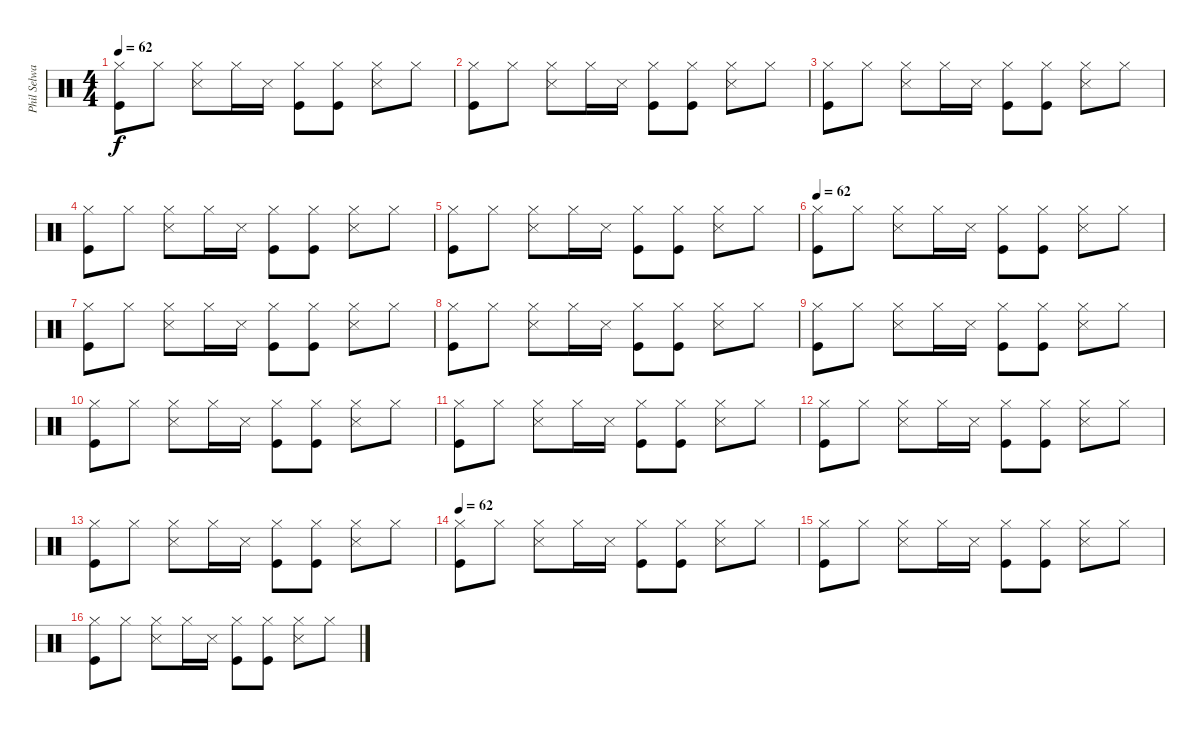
\track ("Phil Selway" "Phil Selwa") {instrument percussion}
\staff {score}
\articulation defaults
\ts (4 4)
\tempo 62
\clef neutral
\ks c
("Hi-Hat (closed)" "Kick (hit)").8{dy f} "Hi-Hat (closed)".8 ("Hi-Hat (closed)" "Snare (side stick) 3").8 "Hi-Hat (closed)".16 "Snare (side stick) 3".16 ("Hi-Hat (closed)" "Kick (hit)").8 ("Hi-Hat (closed)" "Kick (hit)").8 ("Hi-Hat (closed)" "Snare (side stick) 3").8 "Hi-Hat (closed)".8 |
("Hi-Hat (closed)" "Kick (hit)").8 "Hi-Hat (closed)".8 ("Hi-Hat (closed)" "Snare (side stick) 3").8 "Hi-Hat (closed)".16 "Snare (side stick) 3".16 ("Hi-Hat (closed)" "Kick (hit)").8 ("Hi-Hat (closed)" "Kick (hit)").8 ("Hi-Hat (closed)" "Snare (side stick) 3").8 "Hi-Hat (closed)".8 |
("Hi-Hat (closed)" "Kick (hit)").8 "Hi-Hat (closed)".8 ("Hi-Hat (closed)" "Snare (side stick) 3").8 "Hi-Hat (closed)".16 "Snare (side stick) 3".16 ("Hi-Hat (closed)" "Kick (hit)").8 ("Hi-Hat (closed)" "Kick (hit)").8 ("Hi-Hat (closed)" "Snare (side stick) 3").8 "Hi-Hat (closed)".8 |
("Hi-Hat (closed)" "Kick (hit)").8 "Hi-Hat (closed)".8 ("Hi-Hat (closed)" "Snare (side stick) 3").8 "Hi-Hat (closed)".16 "Snare (side stick) 3".16 ("Hi-Hat (closed)" "Kick (hit)").8 ("Hi-Hat (closed)" "Kick (hit)").8 ("Hi-Hat (closed)" "Snare (side stick) 3").8 "Hi-Hat (closed)".8 |
("Hi-Hat (closed)" "Kick (hit)").8 "Hi-Hat (closed)".8 ("Hi-Hat (closed)" "Snare (side stick) 3").8 "Hi-Hat (closed)".16 "Snare (side stick) 3".16 ("Hi-Hat (closed)" "Kick (hit)").8 ("Hi-Hat (closed)" "Kick (hit)").8 ("Hi-Hat (closed)" "Snare (side stick) 3").8 "Hi-Hat (closed)".8 |
\tempo 62
("Hi-Hat (closed)" "Kick (hit)").8 "Hi-Hat (closed)".8 ("Hi-Hat (closed)" "Snare (side stick) 3").8 "Hi-Hat (closed)".16 "Snare (side stick) 3".16 ("Hi-Hat (closed)" "Kick (hit)").8 ("Hi-Hat (closed)" "Kick (hit)").8 ("Hi-Hat (closed)" "Snare (side stick) 3").8 "Hi-Hat (closed)".8 |
("Hi-Hat (closed)" "Kick (hit)").8 "Hi-Hat (closed)".8 ("Hi-Hat (closed)" "Snare (side stick) 3").8 "Hi-Hat (closed)".16 "Snare (side stick) 3".16 ("Hi-Hat (closed)" "Kick (hit)").8 ("Hi-Hat (closed)" "Kick (hit)").8 ("Hi-Hat (closed)" "Snare (side stick) 3").8 "Hi-Hat (closed)".8 |
("Hi-Hat (closed)" "Kick (hit)").8 "Hi-Hat (closed)".8 ("Hi-Hat (closed)" "Snare (side stick) 3").8 "Hi-Hat (closed)".16 "Snare (side stick) 3".16 ("Hi-Hat (closed)" "Kick (hit)").8 ("Hi-Hat (closed)" "Kick (hit)").8 ("Hi-Hat (closed)" "Snare (side stick) 3").8 "Hi-Hat (closed)".8 |
("Hi-Hat (closed)" "Kick (hit)").8 "Hi-Hat (closed)".8 ("Hi-Hat (closed)" "Snare (side stick) 3").8 "Hi-Hat (closed)".16 "Snare (side stick) 3".16 ("Hi-Hat (closed)" "Kick (hit)").8 ("Hi-Hat (closed)" "Kick (hit)").8 ("Hi-Hat (closed)" "Snare (side stick) 3").8 "Hi-Hat (closed)".8 |
("Hi-Hat (closed)" "Kick (hit)").8 "Hi-Hat (closed)".8 ("Hi-Hat (closed)" "Snare (side stick) 3").8 "Hi-Hat (closed)".16 "Snare (side stick) 3".16 ("Hi-Hat (closed)" "Kick (hit)").8 ("Hi-Hat (closed)" "Kick (hit)").8 ("Hi-Hat (closed)" "Snare (side stick) 3").8 "Hi-Hat (closed)".8 |
("Hi-Hat (closed)" "Kick (hit)").8 "Hi-Hat (closed)".8 ("Hi-Hat (closed)" "Snare (side stick) 3").8 "Hi-Hat (closed)".16 "Snare (side stick) 3".16 ("Hi-Hat (closed)" "Kick (hit)").8 ("Hi-Hat (closed)" "Kick (hit)").8 ("Hi-Hat (closed)" "Snare (side stick) 3").8 "Hi-Hat (closed)".8 |
("Hi-Hat (closed)" "Kick (hit)").8 "Hi-Hat (closed)".8 ("Hi-Hat (closed)" "Snare (side stick) 3").8 "Hi-Hat (closed)".16 "Snare (side stick) 3".16 ("Hi-Hat (closed)" "Kick (hit)").8 ("Hi-Hat (closed)" "Kick (hit)").8 ("Hi-Hat (closed)" "Snare (side stick) 3").8 "Hi-Hat (closed)".8 |
("Hi-Hat (closed)" "Kick (hit)").8 "Hi-Hat (closed)".8 ("Hi-Hat (closed)" "Snare (side stick) 3").8 "Hi-Hat (closed)".16 "Snare (side stick) 3".16 ("Hi-Hat (closed)" "Kick (hit)").8 ("Hi-Hat (closed)" "Kick (hit)").8 ("Hi-Hat (closed)" "Snare (side stick) 3").8 "Hi-Hat (closed)".8 |
\tempo 62
("Hi-Hat (closed)" "Kick (hit)").8 "Hi-Hat (closed)".8 ("Hi-Hat (closed)" "Snare (side stick) 3").8 "Hi-Hat (closed)".16 "Snare (side stick) 3".16 ("Hi-Hat (closed)" "Kick (hit)").8 ("Hi-Hat (closed)" "Kick (hit)").8 ("Hi-Hat (closed)" "Snare (side stick) 3").8 "Hi-Hat (closed)".8 |
("Hi-Hat (closed)" "Kick (hit)").8 "Hi-Hat (closed)".8 ("Hi-Hat (closed)" "Snare (side stick) 3").8 "Hi-Hat (closed)".16 "Snare (side stick) 3".16 ("Hi-Hat (closed)" "Kick (hit)").8 ("Hi-Hat (closed)" "Kick (hit)").8 ("Hi-Hat (closed)" "Snare (side stick) 3").8 "Hi-Hat (closed)".8 |
("Hi-Hat (closed)" "Kick (hit)").8 "Hi-Hat (closed)".8 ("Hi-Hat (closed)" "Snare (side stick) 3").8 "Hi-Hat (closed)".16 "Snare (side stick) 3".16 ("Hi-Hat (closed)" "Kick (hit)").8 ("Hi-Hat (closed)" "Kick (hit)").8 ("Hi-Hat (closed)" "Snare (side stick) 3").8 "Hi-Hat (closed)".8
